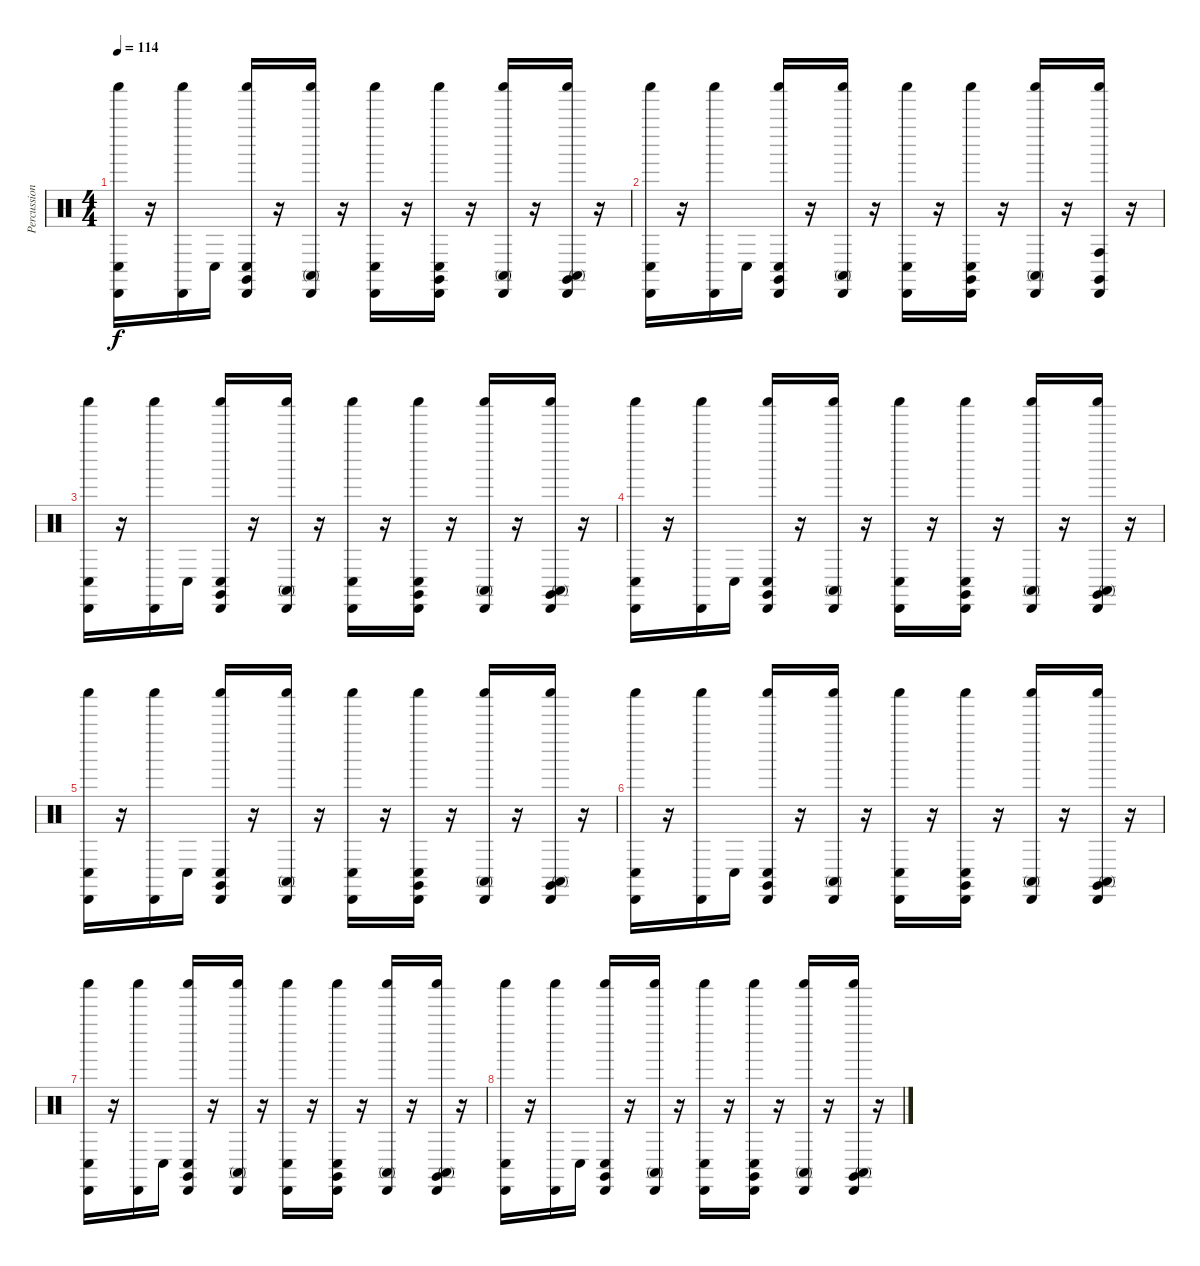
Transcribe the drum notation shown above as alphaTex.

\track ("Percussion (Std Set)" "Percussion") {instrument percussion}
\staff {score}
\articulation defaults
\ts (4 4)
\tempo 114
\clef neutral
\ks c
("Conga low (hit)" "Cabasa (hit)" "Shaker (hit)").16{dy f} r.16 ("Shaker (hit)" "Cabasa (hit)").16 "Conga low (hit)".16 ("Cabasa (hit)" "Shaker (hit)" "Claves (hit)" "Conga low (hit)").16 r.16 ("Shaker (hit)" "Cabasa (hit)" "Conga high (mute)").16 r.16 ("Cabasa (hit)" "Conga low (hit)" "Shaker (hit)").16 r.16 ("Cabasa (hit)" "Conga low (hit)" "Shaker (hit)" "Claves (hit)").16 r.16 ("Conga high (mute)" "Cabasa (hit)" "Shaker (hit)").16 r.16 ("Shaker (hit)" "Conga high (mute)" "Claves (hit)" "Cabasa (hit)").16 r.16 |
("Shaker (hit)" "Conga low (hit)" "Cabasa (hit)").16 r.16 ("Cabasa (hit)" "Shaker (hit)").16 "Conga low (hit)".16 ("Conga low (hit)" "Claves (hit)" "Cabasa (hit)" "Shaker (hit)").16 r.16 ("Cabasa (hit)" "Conga high (mute)" "Shaker (hit)").16 r.16 ("Shaker (hit)" "Cabasa (hit)" "Conga low (hit)").16 r.16 ("Conga low (hit)" "Shaker (hit)" "Claves (hit)" "Cabasa (hit)").16 r.16 ("Cabasa (hit)" "Shaker (hit)" "Conga high (mute)").16 r.16 ("Shaker (hit)" "Claves (hit)" "Conga high (hit)" "Cabasa (hit)").16 r.16 |
("Shaker (hit)" "Cabasa (hit)" "Conga low (hit)").16 r.16 ("Cabasa (hit)" "Shaker (hit)").16 "Conga low (hit)".16 ("Cabasa (hit)" "Conga low (hit)" "Claves (hit)" "Shaker (hit)").16 r.16 ("Shaker (hit)" "Cabasa (hit)" "Conga high (mute)").16 r.16 ("Conga low (hit)" "Cabasa (hit)" "Shaker (hit)").16 r.16 ("Conga low (hit)" "Claves (hit)" "Cabasa (hit)" "Shaker (hit)").16 r.16 ("Shaker (hit)" "Conga high (mute)" "Cabasa (hit)").16 r.16 ("Shaker (hit)" "Claves (hit)" "Cabasa (hit)" "Conga high (mute)").16 r.16 |
("Shaker (hit)" "Cabasa (hit)" "Conga low (hit)").16 r.16 ("Cabasa (hit)" "Shaker (hit)").16 "Conga low (hit)".16 ("Cabasa (hit)" "Conga low (hit)" "Claves (hit)" "Shaker (hit)").16 r.16 ("Shaker (hit)" "Cabasa (hit)" "Conga high (mute)").16 r.16 ("Conga low (hit)" "Cabasa (hit)" "Shaker (hit)").16 r.16 ("Conga low (hit)" "Claves (hit)" "Cabasa (hit)" "Shaker (hit)").16 r.16 ("Shaker (hit)" "Conga high (mute)" "Cabasa (hit)").16 r.16 ("Shaker (hit)" "Claves (hit)" "Cabasa (hit)" "Conga high (mute)").16 r.16 |
("Shaker (hit)" "Cabasa (hit)" "Conga low (hit)").16 r.16 ("Cabasa (hit)" "Shaker (hit)").16 "Conga low (hit)".16 ("Cabasa (hit)" "Conga low (hit)" "Claves (hit)" "Shaker (hit)").16 r.16 ("Shaker (hit)" "Cabasa (hit)" "Conga high (mute)").16 r.16 ("Conga low (hit)" "Cabasa (hit)" "Shaker (hit)").16 r.16 ("Conga low (hit)" "Claves (hit)" "Cabasa (hit)" "Shaker (hit)").16 r.16 ("Shaker (hit)" "Conga high (mute)" "Cabasa (hit)").16 r.16 ("Shaker (hit)" "Claves (hit)" "Cabasa (hit)" "Conga high (mute)").16 r.16 |
("Shaker (hit)" "Cabasa (hit)" "Conga low (hit)").16 r.16 ("Cabasa (hit)" "Shaker (hit)").16 "Conga low (hit)".16 ("Cabasa (hit)" "Conga low (hit)" "Claves (hit)" "Shaker (hit)").16 r.16 ("Shaker (hit)" "Cabasa (hit)" "Conga high (mute)").16 r.16 ("Conga low (hit)" "Cabasa (hit)" "Shaker (hit)").16 r.16 ("Conga low (hit)" "Claves (hit)" "Cabasa (hit)" "Shaker (hit)").16 r.16 ("Shaker (hit)" "Conga high (mute)" "Cabasa (hit)").16 r.16 ("Shaker (hit)" "Claves (hit)" "Cabasa (hit)" "Conga high (mute)").16 r.16 |
("Shaker (hit)" "Cabasa (hit)" "Conga low (hit)").16 r.16 ("Cabasa (hit)" "Shaker (hit)").16 "Conga low (hit)".16 ("Cabasa (hit)" "Conga low (hit)" "Claves (hit)" "Shaker (hit)").16 r.16 ("Shaker (hit)" "Cabasa (hit)" "Conga high (mute)").16 r.16 ("Conga low (hit)" "Cabasa (hit)" "Shaker (hit)").16 r.16 ("Conga low (hit)" "Claves (hit)" "Cabasa (hit)" "Shaker (hit)").16 r.16 ("Shaker (hit)" "Conga high (mute)" "Cabasa (hit)").16 r.16 ("Shaker (hit)" "Claves (hit)" "Cabasa (hit)" "Conga high (mute)").16 r.16 |
("Shaker (hit)" "Cabasa (hit)" "Conga low (hit)").16 r.16 ("Cabasa (hit)" "Shaker (hit)").16 "Conga low (hit)".16 ("Cabasa (hit)" "Conga low (hit)" "Claves (hit)" "Shaker (hit)").16 r.16 ("Shaker (hit)" "Cabasa (hit)" "Conga high (mute)").16 r.16 ("Conga low (hit)" "Cabasa (hit)" "Shaker (hit)").16 r.16 ("Conga low (hit)" "Claves (hit)" "Cabasa (hit)" "Shaker (hit)").16 r.16 ("Shaker (hit)" "Conga high (mute)" "Cabasa (hit)").16 r.16 ("Shaker (hit)" "Claves (hit)" "Cabasa (hit)" "Conga high (mute)").16 r.16
